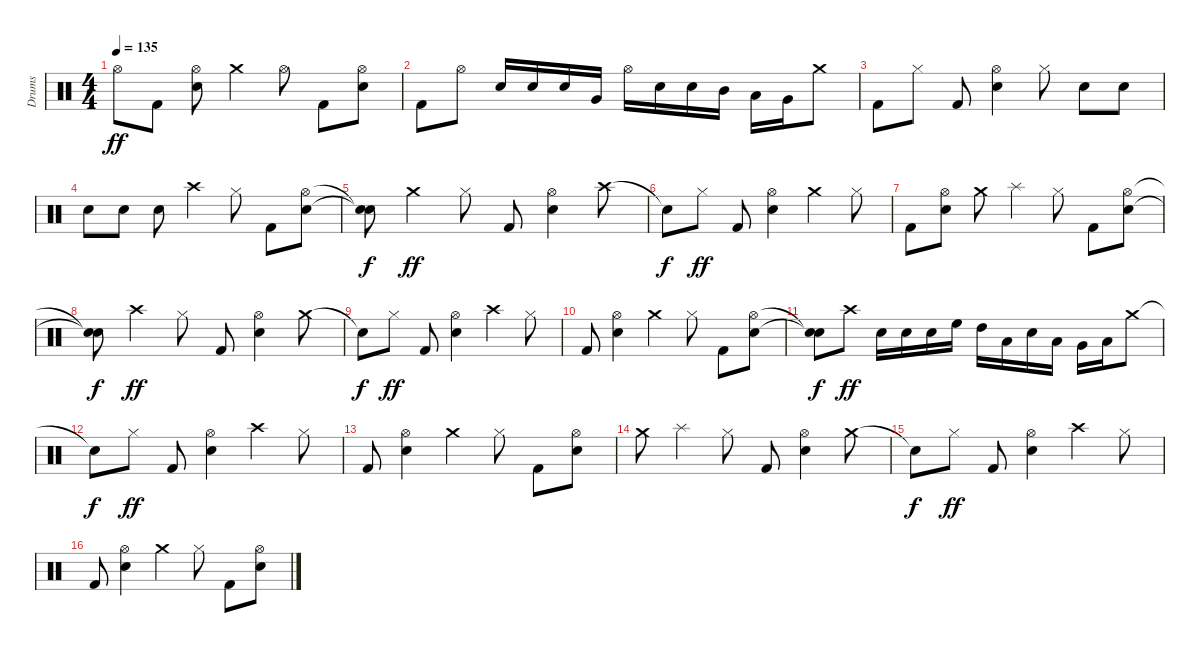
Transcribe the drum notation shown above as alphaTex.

\track ("Drums" "Drums") {instrument percussion}
\staff {score}
\articulation defaults
\ts (4 4)
\tempo 135
\clef neutral
\ks c "Hi-Hat (open)".8{dy ff} "Kick (hit) 2".8
("Electric Snare (hit)" "Hi-Hat (open)").8 "Crash medium (hit)".4 "Hi-Hat (open)".8 "Kick (hit) 2".8 ("Electric Snare (hit)" "Hi-Hat (open)").8 |
"Kick (hit) 2".8 "Hi-Hat (open)".8 "Electric Snare (hit)".16 "Electric Snare (hit)".16 "Electric Snare (hit)".16 "Very Low Tom (hit)".16 "Hi-Hat (open)".16 "Electric Snare (hit)".16 "Electric Snare (hit)".16 "Mid Tom (hit)".16 "Low Tom (hit)".16 "Very Low Tom (hit)".16 "Crash medium (hit)".8 |
"Kick (hit) 2".8 "Hi-Hat (closed)".8 "Kick (hit) 2".8 ("Electric Snare (hit)" "Hi-Hat (open)").4 "Hi-Hat (closed)".8 "Electric Snare (hit)".8 "Electric Snare (hit)".8 |
"Electric Snare (hit)".8 "Electric Snare (hit)".8 "Electric Snare (hit)".8 "Crash high (hit)".4 "Hi-Hat (closed)".8 "Kick (hit) 2".8 ("Electric Snare (hit)" "Hi-Hat (open)").8 |
("Snare (hit)"{t} "Snare (hit)"{t}).8{dy f} "Crash medium (hit)".4{dy ff} "Hi-Hat (closed)".8 "Kick (hit) 2".8 ("Electric Snare (hit)" "Hi-Hat (open)").4 "Crash high (hit)".8 |
"Snare (hit)"{t}.8{dy f} "Hi-Hat (closed)".8{dy ff} "Kick (hit) 2".8 ("Electric Snare (hit)" "Hi-Hat (open)").4 "Crash medium (hit)".4 "Hi-Hat (closed)".8 |
"Kick (hit) 2".8 ("Electric Snare (hit)" "Hi-Hat (open)").8 "Crash medium (hit)".8 "Splash (hit)".4 "Hi-Hat (closed)".8 "Kick (hit) 2".8 ("Electric Snare (hit)" "Hi-Hat (open)").8 |
("Snare (hit)"{t} "Snare (hit)"{t}).8{dy f} "Crash high (hit)".4{dy ff} "Hi-Hat (closed)".8 "Kick (hit) 2".8 ("Electric Snare (hit)" "Hi-Hat (open)").4 "Crash medium (hit)".8 |
"Snare (hit)"{t}.8{dy f} "Hi-Hat (closed)".8{dy ff} "Kick (hit) 2".8 ("Electric Snare (hit)" "Hi-Hat (open)").4 "Crash high (hit)".4 "Hi-Hat (closed)".8 |
"Kick (hit) 2".8 ("Electric Snare (hit)" "Hi-Hat (open)").4 "Crash medium (hit)".4 "Hi-Hat (closed)".8 "Kick (hit) 2".8 ("Electric Snare (hit)" "Hi-Hat (open)").8 |
("Snare (hit)"{t} "Snare (hit)"{t}).8{dy f} "Crash high (hit)".8{dy ff} "Electric Snare (hit)".16 "Electric Snare (hit)".16 "Electric Snare (hit)".16 "High Floor Tom (hit)".16 "High Tom (hit)".16 "Low Tom (hit)".16 "Electric Snare (hit)".16 "Low Tom (hit)".16 "Very Low Tom (hit)".16 "Low Floor Tom (hit)".16 "Crash medium (hit)".8 |
"Snare (hit)"{t}.8{dy f} "Hi-Hat (closed)".8{dy ff} "Kick (hit) 2".8 ("Electric Snare (hit)" "Hi-Hat (open)").4 "Crash high (hit)".4 "Hi-Hat (closed)".8 |
"Kick (hit) 2".8 ("Electric Snare (hit)" "Hi-Hat (open)").4 "Crash medium (hit)".4 "Hi-Hat (closed)".8 "Kick (hit) 2".8 ("Electric Snare (hit)" "Hi-Hat (open)").8 |
"Crash medium (hit)".8 "Splash (hit)".4 "Hi-Hat (closed)".8 "Kick (hit) 2".8 ("Electric Snare (hit)" "Hi-Hat (open)").4 "Crash medium (hit)".8 |
"Snare (hit)"{t}.8{dy f} "Hi-Hat (closed)".8{dy ff} "Kick (hit) 2".8 ("Electric Snare (hit)" "Hi-Hat (open)").4 "Crash high (hit)".4 "Hi-Hat (closed)".8 |
"Kick (hit) 2".8 ("Electric Snare (hit)" "Hi-Hat (open)").4 "Crash medium (hit)".4 "Hi-Hat (closed)".8 "Kick (hit) 2".8 ("Electric Snare (hit)" "Hi-Hat (open)").8
